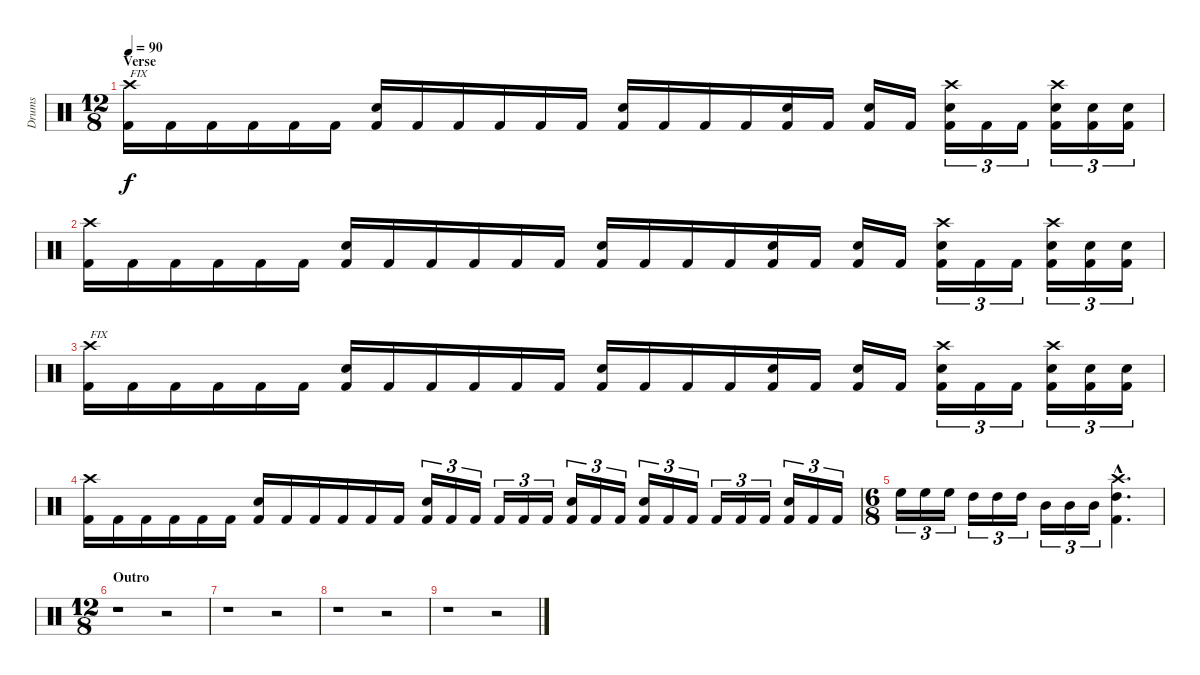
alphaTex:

\track ("Drums" "Drums") {instrument percussion}
\staff {score}
\articulation defaults
\ts (12 8)
\section ("" "Verse")
\tempo 90
\clef neutral
\ks c
("Crash high (hit)" "Kick (hit) 2").16{txt "FIX" dy f} "Kick (hit) 2".16 "Kick (hit) 2".16 "Kick (hit) 2".16 "Kick (hit) 2".16 "Kick (hit) 2".16 ("Electric Snare (hit)" "Kick (hit) 2").16 "Kick (hit) 2".16 "Kick (hit) 2".16 "Kick (hit) 2".16 "Kick (hit) 2".16 "Kick (hit) 2".16 ("Electric Snare (hit)" "Kick (hit) 2").16 "Kick (hit) 2".16 "Kick (hit) 2".16 "Kick (hit) 2".16 ("Electric Snare (hit)" "Kick (hit) 2").16 "Kick (hit) 2".16 ("Electric Snare (hit)" "Kick (hit) 2").16 "Kick (hit) 2".16 ("Crash high (hit)" "Electric Snare (hit)" "Kick (hit) 2").16{tu (3 2)} "Kick (hit) 2".16{tu (3 2)} "Kick (hit) 2".16{tu (3 2)} ("Crash high (hit)" "Electric Snare (hit)" "Kick (hit) 2").16{tu (3 2)} ("Electric Snare (hit)" "Kick (hit) 2").16{tu (3 2)} ("Electric Snare (hit)" "Kick (hit) 2").16{tu (3 2)} |
("Crash high (hit)" "Kick (hit) 2").16 "Kick (hit) 2".16 "Kick (hit) 2".16 "Kick (hit) 2".16 "Kick (hit) 2".16 "Kick (hit) 2".16 ("Electric Snare (hit)" "Kick (hit) 2").16 "Kick (hit) 2".16 "Kick (hit) 2".16 "Kick (hit) 2".16 "Kick (hit) 2".16 "Kick (hit) 2".16 ("Electric Snare (hit)" "Kick (hit) 2").16 "Kick (hit) 2".16 "Kick (hit) 2".16 "Kick (hit) 2".16 ("Electric Snare (hit)" "Kick (hit) 2").16 "Kick (hit) 2".16 ("Electric Snare (hit)" "Kick (hit) 2").16 "Kick (hit) 2".16 ("Crash high (hit)" "Electric Snare (hit)" "Kick (hit) 2").16{tu (3 2)} "Kick (hit) 2".16{tu (3 2)} "Kick (hit) 2".16{tu (3 2)} ("Crash high (hit)" "Electric Snare (hit)" "Kick (hit) 2").16{tu (3 2)} ("Electric Snare (hit)" "Kick (hit) 2").16{tu (3 2)} ("Electric Snare (hit)" "Kick (hit) 2").16{tu (3 2)} |
("Crash high (hit)" "Kick (hit) 2").16{txt "FIX"} "Kick (hit) 2".16 "Kick (hit) 2".16 "Kick (hit) 2".16 "Kick (hit) 2".16 "Kick (hit) 2".16 ("Electric Snare (hit)" "Kick (hit) 2").16 "Kick (hit) 2".16 "Kick (hit) 2".16 "Kick (hit) 2".16 "Kick (hit) 2".16 "Kick (hit) 2".16 ("Electric Snare (hit)" "Kick (hit) 2").16 "Kick (hit) 2".16 "Kick (hit) 2".16 "Kick (hit) 2".16 ("Electric Snare (hit)" "Kick (hit) 2").16 "Kick (hit) 2".16 ("Electric Snare (hit)" "Kick (hit) 2").16 "Kick (hit) 2".16 ("Crash high (hit)" "Electric Snare (hit)" "Kick (hit) 2").16{tu (3 2)} "Kick (hit) 2".16{tu (3 2)} "Kick (hit) 2".16{tu (3 2)} ("Crash high (hit)" "Electric Snare (hit)" "Kick (hit) 2").16{tu (3 2)} ("Electric Snare (hit)" "Kick (hit) 2").16{tu (3 2)} ("Electric Snare (hit)" "Kick (hit) 2").16{tu (3 2)} |
("Crash high (hit)" "Kick (hit) 2").16 "Kick (hit) 2".16 "Kick (hit) 2".16 "Kick (hit) 2".16 "Kick (hit) 2".16 "Kick (hit) 2".16 ("Electric Snare (hit)" "Kick (hit) 2").16 "Kick (hit) 2".16 "Kick (hit) 2".16 "Kick (hit) 2".16 "Kick (hit) 2".16 "Kick (hit) 2".16 ("Electric Snare (hit)" "Kick (hit) 2").16{tu (3 2)} "Kick (hit) 2".16{tu (3 2)} "Kick (hit) 2".16{tu (3 2)} "Kick (hit) 2".16{tu (3 2)} "Kick (hit) 2".16{tu (3 2)} "Kick (hit) 2".16{tu (3 2)} ("Electric Snare (hit)" "Kick (hit) 2").16{tu (3 2)} "Kick (hit) 2".16{tu (3 2)} "Kick (hit) 2".16{tu (3 2)} ("Electric Snare (hit)" "Kick (hit) 2").16{tu (3 2)} "Kick (hit) 2".16{tu (3 2)} "Kick (hit) 2".16{tu (3 2)} "Kick (hit) 2".16{tu (3 2)} "Kick (hit) 2".16{tu (3 2)} "Kick (hit) 2".16{tu (3 2)} ("Electric Snare (hit)" "Kick (hit) 2").16{tu (3 2)} "Kick (hit) 2".16{tu (3 2)} "Kick (hit) 2".16{tu (3 2)} |
\ts (6 8)
"High Floor Tom (hit)".16{tu (3 2)} "High Floor Tom (hit)".16{tu (3 2)} "High Floor Tom (hit)".16{tu (3 2)} "High Tom (hit)".16{tu (3 2)} "High Tom (hit)".16{tu (3 2)} "High Tom (hit)".16{tu (3 2)} "Mid Tom (hit)".16{tu (3 2)} "Mid Tom (hit)".16{tu (3 2)} "Mid Tom (hit)".16{tu (3 2)} ("Crash high (hit)"{hac} "High Tom (hit)"{hac} "Kick (hit) 2"{hac}).4{d} |
\ts (12 8)
\section ("" "Outro")
r.1 r.2 |
r.1 r.2 |
r.1 r.2 |
r.1 r.2
